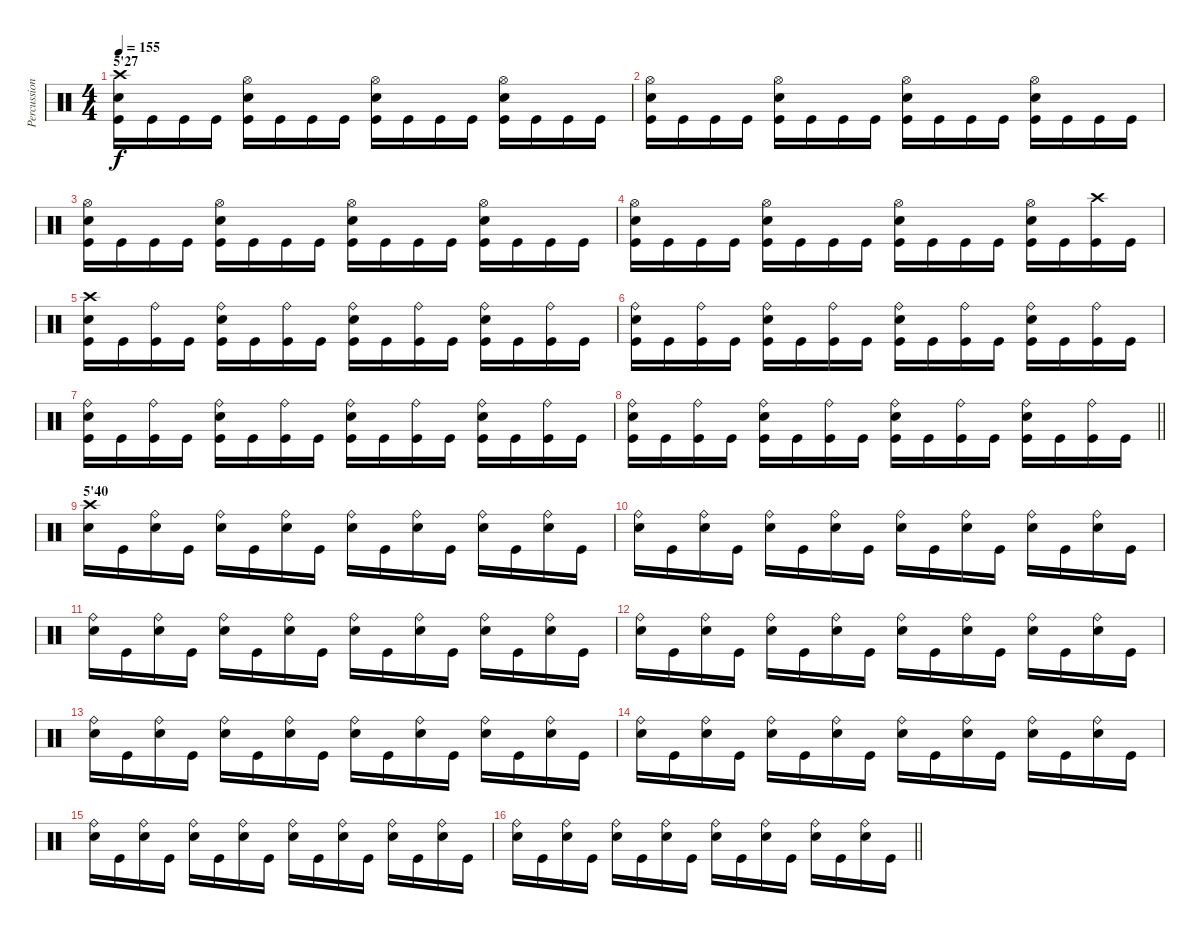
\track ("Percussions" "Percussion") {instrument percussion}
\staff {score}
\articulation defaults
\ts (4 4)
\section ("" "5'27")
\tempo 155
\clef neutral
\ks c
("Crash high (hit)" "Electric Snare (hit)" "Kick (hit)").16{dy f} "Kick (hit)".16 "Kick (hit)".16 "Kick (hit)".16 ("Hi-Hat (open)" "Electric Snare (hit)" "Kick (hit)").16 "Kick (hit)".16 "Kick (hit)".16 "Kick (hit)".16 ("Hi-Hat (open)" "Electric Snare (hit)" "Kick (hit)").16 "Kick (hit)".16 "Kick (hit)".16 "Kick (hit)".16 ("Hi-Hat (open)" "Electric Snare (hit)" "Kick (hit)").16 "Kick (hit)".16 "Kick (hit)".16 "Kick (hit)".16 |
("Hi-Hat (open)" "Electric Snare (hit)" "Kick (hit)").16 "Kick (hit)".16 "Kick (hit)".16 "Kick (hit)".16 ("Hi-Hat (open)" "Electric Snare (hit)" "Kick (hit)").16 "Kick (hit)".16 "Kick (hit)".16 "Kick (hit)".16 ("Hi-Hat (open)" "Electric Snare (hit)" "Kick (hit)").16 "Kick (hit)".16 "Kick (hit)".16 "Kick (hit)".16 ("Hi-Hat (open)" "Electric Snare (hit)" "Kick (hit)").16 "Kick (hit)".16 "Kick (hit)".16 "Kick (hit)".16 |
("Hi-Hat (open)" "Electric Snare (hit)" "Kick (hit)").16 "Kick (hit)".16 "Kick (hit)".16 "Kick (hit)".16 ("Hi-Hat (open)" "Electric Snare (hit)" "Kick (hit)").16 "Kick (hit)".16 "Kick (hit)".16 "Kick (hit)".16 ("Hi-Hat (open)" "Electric Snare (hit)" "Kick (hit)").16 "Kick (hit)".16 "Kick (hit)".16 "Kick (hit)".16 ("Hi-Hat (open)" "Electric Snare (hit)" "Kick (hit)").16 "Kick (hit)".16 "Kick (hit)".16 "Kick (hit)".16 |
("Hi-Hat (open)" "Electric Snare (hit)" "Kick (hit)").16 "Kick (hit)".16 "Kick (hit)".16 "Kick (hit)".16 ("Hi-Hat (open)" "Electric Snare (hit)" "Kick (hit)").16 "Kick (hit)".16 "Kick (hit)".16 "Kick (hit)".16 ("Hi-Hat (open)" "Electric Snare (hit)" "Kick (hit)").16 "Kick (hit)".16 "Kick (hit)".16 "Kick (hit)".16 ("Hi-Hat (open)" "Electric Snare (hit)" "Kick (hit)").16 "Kick (hit)".16 ("Crash high (hit)" "Kick (hit)").16 "Kick (hit)".16 |
("Crash high (hit)" "Electric Snare (hit)" "Kick (hit)").16 "Kick (hit)".16 ("Ride (bell)" "Kick (hit)").16 "Kick (hit)".16 ("Ride (bell)" "Electric Snare (hit)" "Kick (hit)").16 "Kick (hit)".16 ("Ride (bell)" "Kick (hit)").16 "Kick (hit)".16 ("Ride (bell)" "Electric Snare (hit)" "Kick (hit)").16 "Kick (hit)".16 ("Ride (bell)" "Kick (hit)").16 "Kick (hit)".16 ("Ride (bell)" "Electric Snare (hit)" "Kick (hit)").16 "Kick (hit)".16 ("Ride (bell)" "Kick (hit)").16 "Kick (hit)".16 |
("Ride (bell)" "Electric Snare (hit)" "Kick (hit)").16 "Kick (hit)".16 ("Ride (bell)" "Kick (hit)").16 "Kick (hit)".16 ("Ride (bell)" "Electric Snare (hit)" "Kick (hit)").16 "Kick (hit)".16 ("Ride (bell)" "Kick (hit)").16 "Kick (hit)".16 ("Ride (bell)" "Electric Snare (hit)" "Kick (hit)").16 "Kick (hit)".16 ("Ride (bell)" "Kick (hit)").16 "Kick (hit)".16 ("Ride (bell)" "Electric Snare (hit)" "Kick (hit)").16 "Kick (hit)".16 ("Ride (bell)" "Kick (hit)").16 "Kick (hit)".16 |
("Ride (bell)" "Electric Snare (hit)" "Kick (hit)").16 "Kick (hit)".16 ("Ride (bell)" "Kick (hit)").16 "Kick (hit)".16 ("Ride (bell)" "Electric Snare (hit)" "Kick (hit)").16 "Kick (hit)".16 ("Ride (bell)" "Kick (hit)").16 "Kick (hit)".16 ("Ride (bell)" "Electric Snare (hit)" "Kick (hit)").16 "Kick (hit)".16 ("Ride (bell)" "Kick (hit)").16 "Kick (hit)".16 ("Ride (bell)" "Electric Snare (hit)" "Kick (hit)").16 "Kick (hit)".16 ("Ride (bell)" "Kick (hit)").16 "Kick (hit)".16 |
\barLineRight lightlight
("Ride (bell)" "Electric Snare (hit)" "Kick (hit)").16 "Kick (hit)".16 ("Ride (bell)" "Kick (hit)").16 "Kick (hit)".16 ("Ride (bell)" "Electric Snare (hit)" "Kick (hit)").16 "Kick (hit)".16 ("Ride (bell)" "Kick (hit)").16 "Kick (hit)".16 ("Ride (bell)" "Electric Snare (hit)" "Kick (hit)").16 "Kick (hit)".16 ("Ride (bell)" "Kick (hit)").16 "Kick (hit)".16 ("Ride (bell)" "Electric Snare (hit)" "Kick (hit)").16 "Kick (hit)".16 ("Ride (bell)" "Kick (hit)").16 "Kick (hit)".16 |
\section ("" "5'40")
("Crash high (hit)" "Electric Snare (hit)").16 "Kick (hit)".16 ("Ride (bell)" "Electric Snare (hit)").16 "Kick (hit)".16 ("Ride (bell)" "Electric Snare (hit)").16 "Kick (hit)".16 ("Ride (bell)" "Electric Snare (hit)").16 "Kick (hit)".16 ("Ride (bell)" "Electric Snare (hit)").16 "Kick (hit)".16 ("Ride (bell)" "Electric Snare (hit)").16 "Kick (hit)".16 ("Ride (bell)" "Electric Snare (hit)").16 "Kick (hit)".16 ("Ride (bell)" "Electric Snare (hit)").16 "Kick (hit)".16 |
("Ride (bell)" "Electric Snare (hit)").16 "Kick (hit)".16 ("Ride (bell)" "Electric Snare (hit)").16 "Kick (hit)".16 ("Ride (bell)" "Electric Snare (hit)").16 "Kick (hit)".16 ("Ride (bell)" "Electric Snare (hit)").16 "Kick (hit)".16 ("Ride (bell)" "Electric Snare (hit)").16 "Kick (hit)".16 ("Ride (bell)" "Electric Snare (hit)").16 "Kick (hit)".16 ("Ride (bell)" "Electric Snare (hit)").16 "Kick (hit)".16 ("Ride (bell)" "Electric Snare (hit)").16 "Kick (hit)".16 |
("Ride (bell)" "Electric Snare (hit)").16 "Kick (hit)".16 ("Ride (bell)" "Electric Snare (hit)").16 "Kick (hit)".16 ("Ride (bell)" "Electric Snare (hit)").16 "Kick (hit)".16 ("Ride (bell)" "Electric Snare (hit)").16 "Kick (hit)".16 ("Ride (bell)" "Electric Snare (hit)").16 "Kick (hit)".16 ("Ride (bell)" "Electric Snare (hit)").16 "Kick (hit)".16 ("Ride (bell)" "Electric Snare (hit)").16 "Kick (hit)".16 ("Ride (bell)" "Electric Snare (hit)").16 "Kick (hit)".16 |
("Ride (bell)" "Electric Snare (hit)").16 "Kick (hit)".16 ("Ride (bell)" "Electric Snare (hit)").16 "Kick (hit)".16 ("Ride (bell)" "Electric Snare (hit)").16 "Kick (hit)".16 ("Ride (bell)" "Electric Snare (hit)").16 "Kick (hit)".16 ("Ride (bell)" "Electric Snare (hit)").16 "Kick (hit)".16 ("Ride (bell)" "Electric Snare (hit)").16 "Kick (hit)".16 ("Ride (bell)" "Electric Snare (hit)").16 "Kick (hit)".16 ("Ride (bell)" "Electric Snare (hit)").16 "Kick (hit)".16 |
("Ride (bell)" "Electric Snare (hit)").16 "Kick (hit)".16 ("Ride (bell)" "Electric Snare (hit)").16 "Kick (hit)".16 ("Ride (bell)" "Electric Snare (hit)").16 "Kick (hit)".16 ("Ride (bell)" "Electric Snare (hit)").16 "Kick (hit)".16 ("Ride (bell)" "Electric Snare (hit)").16 "Kick (hit)".16 ("Ride (bell)" "Electric Snare (hit)").16 "Kick (hit)".16 ("Ride (bell)" "Electric Snare (hit)").16 "Kick (hit)".16 ("Ride (bell)" "Electric Snare (hit)").16 "Kick (hit)".16 |
("Ride (bell)" "Electric Snare (hit)").16 "Kick (hit)".16 ("Ride (bell)" "Electric Snare (hit)").16 "Kick (hit)".16 ("Ride (bell)" "Electric Snare (hit)").16 "Kick (hit)".16 ("Ride (bell)" "Electric Snare (hit)").16 "Kick (hit)".16 ("Ride (bell)" "Electric Snare (hit)").16 "Kick (hit)".16 ("Ride (bell)" "Electric Snare (hit)").16 "Kick (hit)".16 ("Ride (bell)" "Electric Snare (hit)").16 "Kick (hit)".16 ("Ride (bell)" "Electric Snare (hit)").16 "Kick (hit)".16 |
("Ride (bell)" "Electric Snare (hit)").16 "Kick (hit)".16 ("Ride (bell)" "Electric Snare (hit)").16 "Kick (hit)".16 ("Ride (bell)" "Electric Snare (hit)").16 "Kick (hit)".16 ("Ride (bell)" "Electric Snare (hit)").16 "Kick (hit)".16 ("Ride (bell)" "Electric Snare (hit)").16 "Kick (hit)".16 ("Ride (bell)" "Electric Snare (hit)").16 "Kick (hit)".16 ("Ride (bell)" "Electric Snare (hit)").16 "Kick (hit)".16 ("Ride (bell)" "Electric Snare (hit)").16 "Kick (hit)".16 |
\barLineRight lightlight
("Ride (bell)" "Electric Snare (hit)").16 "Kick (hit)".16 ("Ride (bell)" "Electric Snare (hit)").16 "Kick (hit)".16 ("Ride (bell)" "Electric Snare (hit)").16 "Kick (hit)".16 ("Ride (bell)" "Electric Snare (hit)").16 "Kick (hit)".16 ("Ride (bell)" "Electric Snare (hit)").16 "Kick (hit)".16 ("Ride (bell)" "Electric Snare (hit)").16 "Kick (hit)".16 ("Ride (bell)" "Electric Snare (hit)").16 "Kick (hit)".16 ("Ride (bell)" "Electric Snare (hit)").16 "Kick (hit)".16
